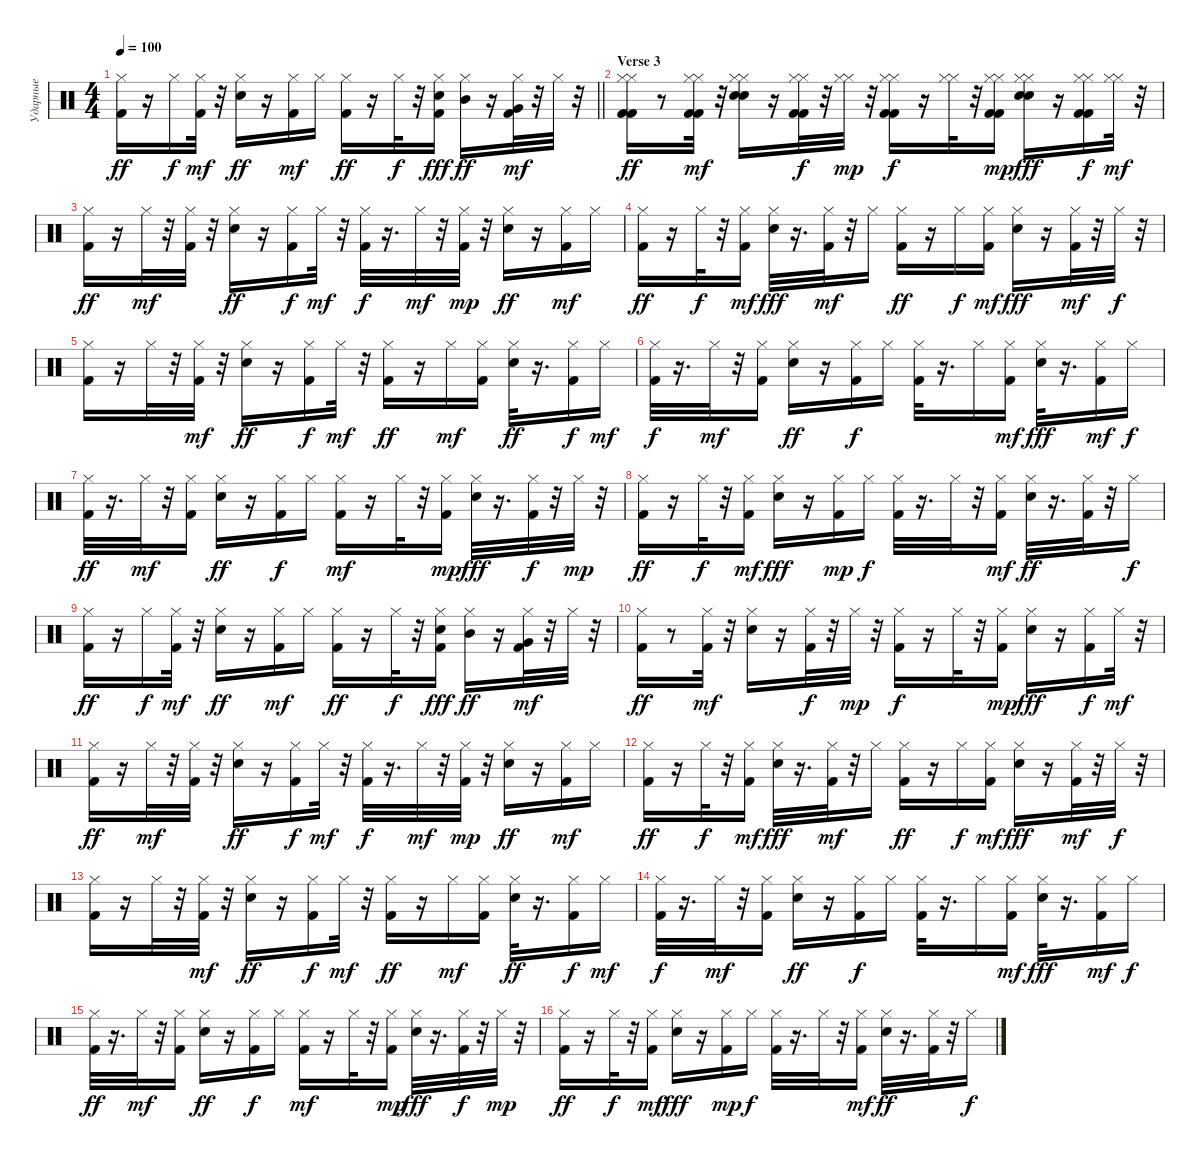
\track ("Ударные" "Ударные") {instrument percussion}
\staff {score}
\articulation defaults
\ts (4 4)
\tempo 100
\clef neutral
\barLineRight lightlight
\ks c
("Hi-Hat (closed)" "Kick (hit) 2").16{dy ff} r.16 "Hi-Hat (closed)".16{dy f} ("Kick (hit) 2" "Hi-Hat (closed)").32{dy mf} r.32 ("Hi-Hat (closed)" "Snare (hit) 2").16{dy ff} r.16 ("Hi-Hat (closed)" "Kick (hit) 2").16{dy mf} "Hi-Hat (closed)".16 ("Hi-Hat (closed)" "Kick (hit) 2").16{dy ff} r.16 "Hi-Hat (closed)".32{dy f} r.32 ("Hi-Hat (closed)" "Kick (hit) 2" "Snare (hit) 2").16{dy fff} ("Hi-Hat (closed)" "Mid Tom (hit)").16{dy ff} r.16 ("Kick (hit) 2" "Hi-Hat (closed)" "Very Low Tom (hit)").32{dy mf} r.32 "Hi-Hat (closed)".32 r.32 |
\section ("" "Verse 3")
("Kick (hit) 2" "Kick (hit) 2" "Hi-Hat (closed)" "Hi-Hat (closed)").16{dy ff} r.8 ("Hi-Hat (closed)" "Kick (hit) 2" "Hi-Hat (closed)" "Kick (hit) 2").32{dy mf} r.32 ("Snare (hit) 2" "Snare (hit) 2" "Hi-Hat (closed)" "Hi-Hat (closed)").16 r.16 ("Kick (hit) 2" "Kick (hit) 2" "Hi-Hat (closed)" "Hi-Hat (closed)").32{dy f} r.32 ("Hi-Hat (closed)" "Hi-Hat (closed)").32{dy mp} r.32 ("Kick (hit) 2" "Kick (hit) 2" "Hi-Hat (closed)" "Hi-Hat (closed)").16{dy f} r.16 ("Hi-Hat (closed)" "Hi-Hat (closed)").32 r.32 ("Kick (hit) 2" "Kick (hit) 2" "Hi-Hat (closed)" "Hi-Hat (closed)").16{dy mp} ("Hi-Hat (closed)" "Hi-Hat (closed)" "Snare (hit) 2" "Snare (hit) 2").16{dy fff} r.16 ("Kick (hit) 2" "Kick (hit) 2" "Hi-Hat (closed)" "Hi-Hat (closed)").16{dy f} ("Hi-Hat (closed)" "Hi-Hat (closed)").32{dy mf} r.32 |
("Kick (hit) 2" "Hi-Hat (closed)").16{dy ff} r.16 "Hi-Hat (closed)".32{dy mf} r.32 ("Kick (hit) 2" "Hi-Hat (closed)").32 r.32 ("Hi-Hat (closed)" "Snare (hit) 2").16{dy ff} r.16 ("Kick (hit) 2" "Hi-Hat (closed)").16{dy f} "Hi-Hat (closed)".32{dy mf} r.32 ("Kick (hit) 2" "Hi-Hat (closed)").32{dy f} r.16{d} "Hi-Hat (closed)".32{dy mf} r.32 ("Kick (hit) 2" "Hi-Hat (closed)").32{dy mp} r.32 ("Hi-Hat (closed)" "Snare (hit) 2").16{dy ff} r.16 ("Hi-Hat (closed)" "Kick (hit) 2").16{dy mf} "Hi-Hat (closed)".16 |
("Hi-Hat (closed)" "Kick (hit) 2").16{dy ff} r.16 "Hi-Hat (closed)".32{dy f} r.32 ("Kick (hit) 2" "Hi-Hat (closed)").16{dy mf} ("Hi-Hat (closed)" "Snare (hit) 2").32{dy fff} r.16{d} ("Kick (hit) 2" "Hi-Hat (closed)").32{dy mf} r.32 "Hi-Hat (closed)".16 ("Hi-Hat (closed)" "Kick (hit) 2").16{dy ff} r.16 "Hi-Hat (closed)".16{dy f} ("Kick (hit) 2" "Hi-Hat (closed)").16{dy mf} ("Hi-Hat (closed)" "Snare (hit) 2").16{dy fff} r.16 ("Kick (hit) 2" "Hi-Hat (closed)").32{dy mf} r.32 "Hi-Hat (closed)".32{dy f} r.32 |
("Hi-Hat (closed)" "Kick (hit) 2").16 r.16 "Hi-Hat (closed)".32 r.32 ("Kick (hit) 2" "Hi-Hat (closed)").32{dy mf} r.32 ("Hi-Hat (closed)" "Snare (hit) 2").16{dy ff} r.16 ("Kick (hit) 2" "Hi-Hat (closed)").16{dy f} "Hi-Hat (closed)".32{dy mf} r.32 ("Kick (hit) 2" "Hi-Hat (closed)").16{dy ff} r.16 "Hi-Hat (closed)".16{dy mf} ("Kick (hit) 2" "Hi-Hat (closed)").16 ("Hi-Hat (closed)" "Snare (hit) 2").32{dy ff} r.16{d} ("Kick (hit) 2" "Hi-Hat (closed)").16{dy f} "Hi-Hat (closed)".16{dy mf} |
("Kick (hit) 2" "Hi-Hat (closed)").32{dy f} r.16{d} "Hi-Hat (closed)".32{dy mf} r.32 ("Kick (hit) 2" "Hi-Hat (closed)").16 ("Hi-Hat (closed)" "Snare (hit) 2").16{dy ff} r.16 ("Kick (hit) 2" "Hi-Hat (closed)").16{dy f} "Hi-Hat (closed)".16 ("Kick (hit) 2" "Hi-Hat (closed)").32 r.16{d} "Hi-Hat (closed)".16 ("Kick (hit) 2" "Hi-Hat (closed)").16{dy mf} ("Hi-Hat (closed)" "Snare (hit) 2").32{dy fff} r.16{d} ("Kick (hit) 2" "Hi-Hat (closed)").16{dy mf} "Hi-Hat (closed)".16{dy f} |
("Kick (hit) 2" "Hi-Hat (closed)").32{dy ff} r.16{d} "Hi-Hat (closed)".32{dy mf} r.32 ("Kick (hit) 2" "Hi-Hat (closed)").16 ("Hi-Hat (closed)" "Snare (hit) 2").16{dy ff} r.16 ("Kick (hit) 2" "Hi-Hat (closed)").16{dy f} "Hi-Hat (closed)".16 ("Hi-Hat (closed)" "Kick (hit) 2").16{dy mf} r.16 "Hi-Hat (closed)".32 r.32 ("Kick (hit) 2" "Hi-Hat (closed)").16{dy mp} ("Hi-Hat (closed)" "Snare (hit) 2").32{dy fff} r.16{d} ("Kick (hit) 2" "Hi-Hat (closed)").32{dy f} r.32 "Hi-Hat (closed)".32{dy mp} r.32 |
("Kick (hit) 2" "Hi-Hat (closed)").16{dy ff} r.16 "Hi-Hat (closed)".32{dy f} r.32 ("Hi-Hat (closed)" "Kick (hit) 2").16{dy mf} ("Hi-Hat (closed)" "Snare (hit) 2").16{dy fff} r.16 ("Kick (hit) 2" "Hi-Hat (closed)").16{dy mp} "Hi-Hat (closed)".16{dy f} ("Kick (hit) 2" "Hi-Hat (closed)").32 r.16{d} "Hi-Hat (closed)".32 r.32 ("Kick (hit) 2" "Hi-Hat (closed)").16{dy mf} ("Hi-Hat (closed)" "Snare (hit) 2").32{dy ff} r.16{d} ("Kick (hit) 2" "Hi-Hat (closed)").32 r.32 "Hi-Hat (closed)".16{dy f} |
("Hi-Hat (closed)" "Kick (hit) 2").16{dy ff} r.16 "Hi-Hat (closed)".16{dy f} ("Kick (hit) 2" "Hi-Hat (closed)").32{dy mf} r.32 ("Hi-Hat (closed)" "Snare (hit) 2").16{dy ff} r.16 ("Hi-Hat (closed)" "Kick (hit) 2").16{dy mf} "Hi-Hat (closed)".16 ("Hi-Hat (closed)" "Kick (hit) 2").16{dy ff} r.16 "Hi-Hat (closed)".32{dy f} r.32 ("Hi-Hat (closed)" "Kick (hit) 2" "Snare (hit) 2").16{dy fff} ("Hi-Hat (closed)" "Mid Tom (hit)").16{dy ff} r.16 ("Kick (hit) 2" "Hi-Hat (closed)" "Very Low Tom (hit)").32{dy mf} r.32 "Hi-Hat (closed)".32 r.32 |
("Kick (hit) 2" "Hi-Hat (closed)").16{dy ff} r.8 ("Hi-Hat (closed)" "Kick (hit) 2").32{dy mf} r.32 ("Snare (hit) 2" "Hi-Hat (closed)").16 r.16 ("Kick (hit) 2" "Hi-Hat (closed)").32{dy f} r.32 "Hi-Hat (closed)".32{dy mp} r.32 ("Kick (hit) 2" "Hi-Hat (closed)").16{dy f} r.16 "Hi-Hat (closed)".32 r.32 ("Kick (hit) 2" "Hi-Hat (closed)").16{dy mp} ("Hi-Hat (closed)" "Snare (hit) 2").16{dy fff} r.16 ("Kick (hit) 2" "Hi-Hat (closed)").16{dy f} "Hi-Hat (closed)".32{dy mf} r.32 |
("Kick (hit) 2" "Hi-Hat (closed)").16{dy ff} r.16 "Hi-Hat (closed)".32{dy mf} r.32 ("Kick (hit) 2" "Hi-Hat (closed)").32 r.32 ("Hi-Hat (closed)" "Snare (hit) 2").16{dy ff} r.16 ("Kick (hit) 2" "Hi-Hat (closed)").16{dy f} "Hi-Hat (closed)".32{dy mf} r.32 ("Kick (hit) 2" "Hi-Hat (closed)").32{dy f} r.16{d} "Hi-Hat (closed)".32{dy mf} r.32 ("Kick (hit) 2" "Hi-Hat (closed)").32{dy mp} r.32 ("Hi-Hat (closed)" "Snare (hit) 2").16{dy ff} r.16 ("Hi-Hat (closed)" "Kick (hit) 2").16{dy mf} "Hi-Hat (closed)".16 |
("Hi-Hat (closed)" "Kick (hit) 2").16{dy ff} r.16 "Hi-Hat (closed)".32{dy f} r.32 ("Kick (hit) 2" "Hi-Hat (closed)").16{dy mf} ("Hi-Hat (closed)" "Snare (hit) 2").32{dy fff} r.16{d} ("Kick (hit) 2" "Hi-Hat (closed)").32{dy mf} r.32 "Hi-Hat (closed)".16 ("Hi-Hat (closed)" "Kick (hit) 2").16{dy ff} r.16 "Hi-Hat (closed)".16{dy f} ("Kick (hit) 2" "Hi-Hat (closed)").16{dy mf} ("Hi-Hat (closed)" "Snare (hit) 2").16{dy fff} r.16 ("Kick (hit) 2" "Hi-Hat (closed)").32{dy mf} r.32 "Hi-Hat (closed)".32{dy f} r.32 |
("Hi-Hat (closed)" "Kick (hit) 2").16 r.16 "Hi-Hat (closed)".32 r.32 ("Kick (hit) 2" "Hi-Hat (closed)").32{dy mf} r.32 ("Hi-Hat (closed)" "Snare (hit) 2").16{dy ff} r.16 ("Kick (hit) 2" "Hi-Hat (closed)").16{dy f} "Hi-Hat (closed)".32{dy mf} r.32 ("Kick (hit) 2" "Hi-Hat (closed)").16{dy ff} r.16 "Hi-Hat (closed)".16{dy mf} ("Kick (hit) 2" "Hi-Hat (closed)").16 ("Hi-Hat (closed)" "Snare (hit) 2").32{dy ff} r.16{d} ("Kick (hit) 2" "Hi-Hat (closed)").16{dy f} "Hi-Hat (closed)".16{dy mf} |
("Kick (hit) 2" "Hi-Hat (closed)").32{dy f} r.16{d} "Hi-Hat (closed)".32{dy mf} r.32 ("Kick (hit) 2" "Hi-Hat (closed)").16 ("Hi-Hat (closed)" "Snare (hit) 2").16{dy ff} r.16 ("Kick (hit) 2" "Hi-Hat (closed)").16{dy f} "Hi-Hat (closed)".16 ("Kick (hit) 2" "Hi-Hat (closed)").32 r.16{d} "Hi-Hat (closed)".16 ("Kick (hit) 2" "Hi-Hat (closed)").16{dy mf} ("Hi-Hat (closed)" "Snare (hit) 2").32{dy fff} r.16{d} ("Kick (hit) 2" "Hi-Hat (closed)").16{dy mf} "Hi-Hat (closed)".16{dy f} |
("Kick (hit) 2" "Hi-Hat (closed)").32{dy ff} r.16{d} "Hi-Hat (closed)".32{dy mf} r.32 ("Kick (hit) 2" "Hi-Hat (closed)").16 ("Hi-Hat (closed)" "Snare (hit) 2").16{dy ff} r.16 ("Kick (hit) 2" "Hi-Hat (closed)").16{dy f} "Hi-Hat (closed)".16 ("Hi-Hat (closed)" "Kick (hit) 2").16{dy mf} r.16 "Hi-Hat (closed)".32 r.32 ("Kick (hit) 2" "Hi-Hat (closed)").16{dy mp} ("Hi-Hat (closed)" "Snare (hit) 2").32{dy fff} r.16{d} ("Kick (hit) 2" "Hi-Hat (closed)").32{dy f} r.32 "Hi-Hat (closed)".32{dy mp} r.32 |
("Kick (hit) 2" "Hi-Hat (closed)").16{dy ff} r.16 "Hi-Hat (closed)".32{dy f} r.32 ("Hi-Hat (closed)" "Kick (hit) 2").16{dy mf} ("Hi-Hat (closed)" "Snare (hit) 2").16{dy fff} r.16 ("Kick (hit) 2" "Hi-Hat (closed)").16{dy mp} "Hi-Hat (closed)".16{dy f} ("Kick (hit) 2" "Hi-Hat (closed)").32 r.16{d} "Hi-Hat (closed)".32 r.32 ("Kick (hit) 2" "Hi-Hat (closed)").16{dy mf} ("Hi-Hat (closed)" "Snare (hit) 2").32{dy ff} r.16{d} ("Kick (hit) 2" "Hi-Hat (closed)").32 r.32 "Hi-Hat (closed)".16{dy f}
